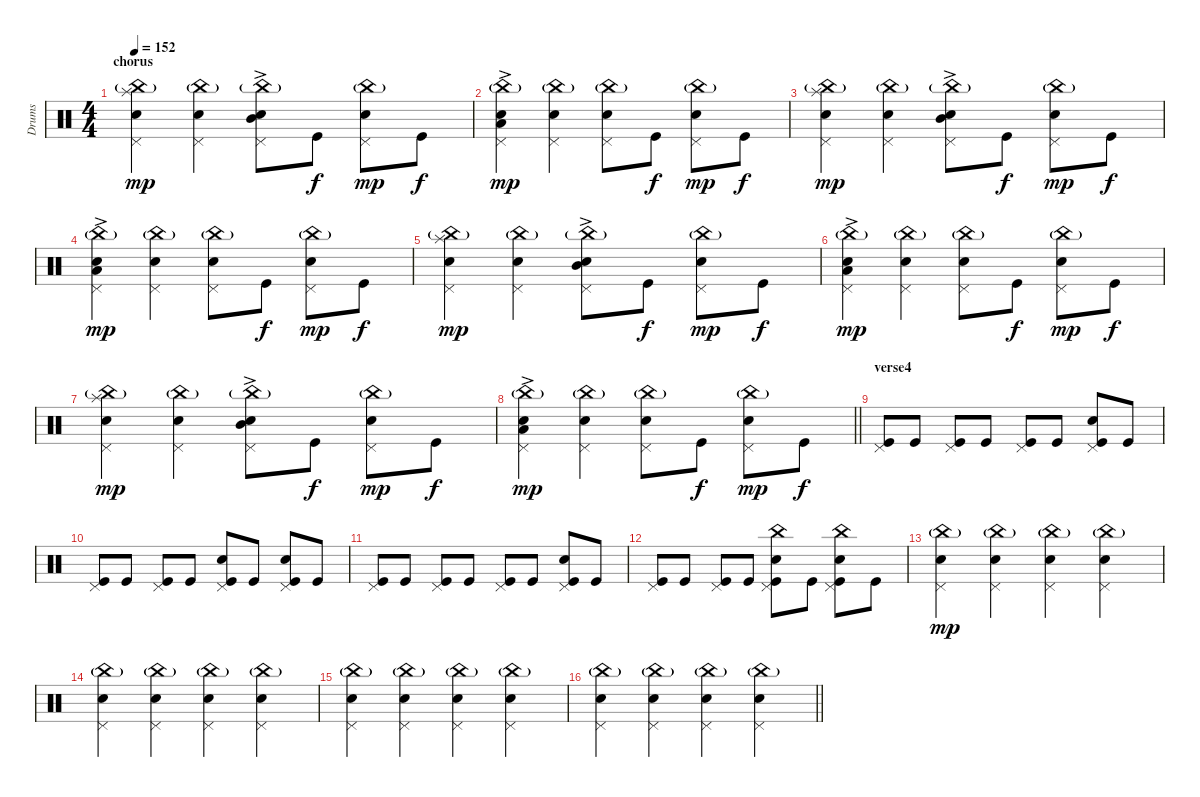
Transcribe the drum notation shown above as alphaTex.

\track ("Drums" "Drums") {instrument percussion}
\staff {score}
\articulation defaults
\ts (4 4)
\section ("" "chorus")
\tempo 152
\clef neutral
\ks c
("Splash (hit)" "China (hit)"{g} "Electric Snare (hit)" "Pedal Hi-Hat (hit)").4{dy mp} ("China (hit)"{g} "Electric Snare (hit)" "Pedal Hi-Hat (hit)").4 ("Mid Tom (hit)"{ac} "China (hit)"{g} "Electric Snare (hit)" "Pedal Hi-Hat (hit)").8 "Kick (hit)".8{dy f} ("China (hit)"{g} "Electric Snare (hit)" "Pedal Hi-Hat (hit)").8{dy mp} "Kick (hit)".8{dy f} |
("Low Tom (hit)"{ac} "China (hit)"{g} "Electric Snare (hit)" "Pedal Hi-Hat (hit)").4{dy mp} ("China (hit)"{g} "Electric Snare (hit)" "Pedal Hi-Hat (hit)").4 ("China (hit)"{g} "Electric Snare (hit)" "Pedal Hi-Hat (hit)").8 "Kick (hit)".8{dy f} ("China (hit)"{g} "Electric Snare (hit)" "Pedal Hi-Hat (hit)").8{dy mp} "Kick (hit)".8{dy f} |
("Splash (hit)" "China (hit)"{g} "Electric Snare (hit)" "Pedal Hi-Hat (hit)").4{dy mp} ("China (hit)"{g} "Electric Snare (hit)" "Pedal Hi-Hat (hit)").4 ("Mid Tom (hit)"{ac} "China (hit)"{g} "Electric Snare (hit)" "Pedal Hi-Hat (hit)").8 "Kick (hit)".8{dy f} ("China (hit)"{g} "Electric Snare (hit)" "Pedal Hi-Hat (hit)").8{dy mp} "Kick (hit)".8{dy f} |
("Low Tom (hit)"{ac} "China (hit)"{g} "Electric Snare (hit)" "Pedal Hi-Hat (hit)").4{dy mp} ("China (hit)"{g} "Electric Snare (hit)" "Pedal Hi-Hat (hit)").4 ("China (hit)"{g} "Electric Snare (hit)" "Pedal Hi-Hat (hit)").8 "Kick (hit)".8{dy f} ("China (hit)"{g} "Electric Snare (hit)" "Pedal Hi-Hat (hit)").8{dy mp} "Kick (hit)".8{dy f} |
("Splash (hit)" "China (hit)"{g} "Electric Snare (hit)" "Pedal Hi-Hat (hit)").4{dy mp} ("China (hit)"{g} "Electric Snare (hit)" "Pedal Hi-Hat (hit)").4 ("Mid Tom (hit)"{ac} "China (hit)"{g} "Electric Snare (hit)" "Pedal Hi-Hat (hit)").8 "Kick (hit)".8{dy f} ("China (hit)"{g} "Electric Snare (hit)" "Pedal Hi-Hat (hit)").8{dy mp} "Kick (hit)".8{dy f} |
("Low Tom (hit)"{ac} "China (hit)"{g} "Electric Snare (hit)" "Pedal Hi-Hat (hit)").4{dy mp} ("China (hit)"{g} "Electric Snare (hit)" "Pedal Hi-Hat (hit)").4 ("China (hit)"{g} "Electric Snare (hit)" "Pedal Hi-Hat (hit)").8 "Kick (hit)".8{dy f} ("China (hit)"{g} "Electric Snare (hit)" "Pedal Hi-Hat (hit)").8{dy mp} "Kick (hit)".8{dy f} |
("Splash (hit)" "China (hit)"{g} "Electric Snare (hit)" "Pedal Hi-Hat (hit)").4{dy mp} ("China (hit)"{g} "Electric Snare (hit)" "Pedal Hi-Hat (hit)").4 ("Mid Tom (hit)"{ac} "China (hit)"{g} "Electric Snare (hit)" "Pedal Hi-Hat (hit)").8 "Kick (hit)".8{dy f} ("China (hit)"{g} "Electric Snare (hit)" "Pedal Hi-Hat (hit)").8{dy mp} "Kick (hit)".8{dy f} |
\barLineRight lightlight
("Low Tom (hit)"{ac} "China (hit)"{g} "Electric Snare (hit)" "Pedal Hi-Hat (hit)").4{dy mp} ("China (hit)"{g} "Electric Snare (hit)" "Pedal Hi-Hat (hit)").4 ("China (hit)"{g} "Electric Snare (hit)" "Pedal Hi-Hat (hit)").8 "Kick (hit)".8{dy f} ("China (hit)"{g} "Electric Snare (hit)" "Pedal Hi-Hat (hit)").8{dy mp} "Kick (hit)".8{dy f} |
\section ("" "verse4")
("Kick (hit)" "Pedal Hi-Hat (hit)").8 "Kick (hit)".8 ("Kick (hit)" "Pedal Hi-Hat (hit)").8 "Kick (hit)".8 ("Kick (hit)" "Pedal Hi-Hat (hit)").8 "Kick (hit)".8 ("Kick (hit)" "Pedal Hi-Hat (hit)" "Electric Snare (hit)").8 "Kick (hit)".8 |
("Kick (hit)" "Pedal Hi-Hat (hit)").8 "Kick (hit)".8 ("Kick (hit)" "Pedal Hi-Hat (hit)").8 "Kick (hit)".8 ("Kick (hit)" "Pedal Hi-Hat (hit)" "Electric Snare (hit)").8 "Kick (hit)".8 ("Kick (hit)" "Pedal Hi-Hat (hit)" "Electric Snare (hit)").8 "Kick (hit)".8 |
("Kick (hit)" "Pedal Hi-Hat (hit)").8 "Kick (hit)".8 ("Kick (hit)" "Pedal Hi-Hat (hit)").8 "Kick (hit)".8 ("Kick (hit)" "Pedal Hi-Hat (hit)").8 "Kick (hit)".8 ("Kick (hit)" "Pedal Hi-Hat (hit)" "Electric Snare (hit)").8 "Kick (hit)".8 |
("Kick (hit)" "Pedal Hi-Hat (hit)").8 "Kick (hit)".8 ("Kick (hit)" "Pedal Hi-Hat (hit)").8 "Kick (hit)".8 ("Kick (hit)" "Pedal Hi-Hat (hit)" "Electric Snare (hit)" "China (hit)").8 "Kick (hit)".8 ("Kick (hit)" "Pedal Hi-Hat (hit)" "Electric Snare (hit)" "China (hit)").8 "Kick (hit)".8 |
("China (hit)"{g} "Electric Snare (hit)" "Pedal Hi-Hat (hit)").4{dy mp} ("China (hit)"{g} "Electric Snare (hit)" "Pedal Hi-Hat (hit)").4 ("China (hit)"{g} "Electric Snare (hit)" "Pedal Hi-Hat (hit)").4 ("China (hit)"{g} "Electric Snare (hit)" "Pedal Hi-Hat (hit)").4 |
("China (hit)"{g} "Electric Snare (hit)" "Pedal Hi-Hat (hit)").4 ("China (hit)"{g} "Electric Snare (hit)" "Pedal Hi-Hat (hit)").4 ("China (hit)"{g} "Electric Snare (hit)" "Pedal Hi-Hat (hit)").4 ("China (hit)"{g} "Electric Snare (hit)" "Pedal Hi-Hat (hit)").4 |
("China (hit)"{g} "Electric Snare (hit)" "Pedal Hi-Hat (hit)").4 ("China (hit)"{g} "Electric Snare (hit)" "Pedal Hi-Hat (hit)").4 ("China (hit)"{g} "Electric Snare (hit)" "Pedal Hi-Hat (hit)").4 ("China (hit)"{g} "Electric Snare (hit)" "Pedal Hi-Hat (hit)").4 |
\barLineRight lightlight
("China (hit)"{g} "Electric Snare (hit)" "Pedal Hi-Hat (hit)").4 ("China (hit)"{g} "Electric Snare (hit)" "Pedal Hi-Hat (hit)").4 ("China (hit)"{g} "Electric Snare (hit)" "Pedal Hi-Hat (hit)").4 ("China (hit)"{g} "Electric Snare (hit)" "Pedal Hi-Hat (hit)").4
